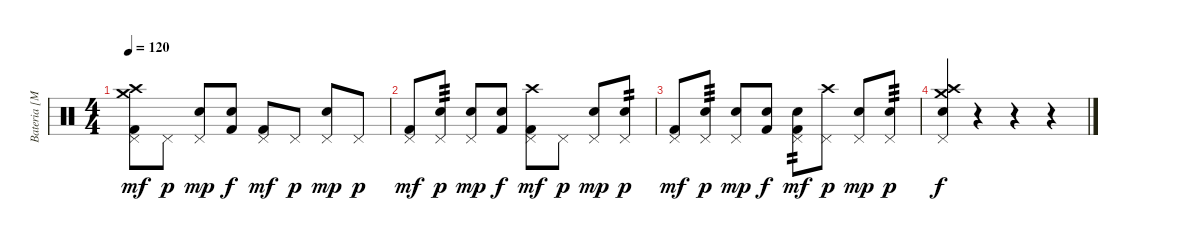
\track ("Bateria [Mauricio Basualto]" "Bateria [M") {instrument percussion}
\staff {score}
\articulation defaults
\ts (4 4)
\tempo 120
\clef neutral
\ks c
("Kick (hit) 2" "Pedal Hi-Hat (hit)" "Crash medium (hit)" "Crash high (hit)").8{dy mf} "Pedal Hi-Hat (hit)".8{dy p} ("Electric Snare (hit)" "Pedal Hi-Hat (hit)").8{dy mp} ("Electric Snare (hit)" "Kick (hit) 2").8{dy f} ("Kick (hit) 2" "Pedal Hi-Hat (hit)").8{dy mf} "Pedal Hi-Hat (hit)".8{dy p} ("Electric Snare (hit)" "Pedal Hi-Hat (hit)").8{dy mp} "Pedal Hi-Hat (hit)".8{dy p} |
("Kick (hit) 2" "Pedal Hi-Hat (hit)").8{dy mf} ("Pedal Hi-Hat (hit)" "Electric Snare (hit)").8{tp 3 dy p} ("Electric Snare (hit)" "Pedal Hi-Hat (hit)").8{dy mp} ("Electric Snare (hit)" "Kick (hit) 2").8{dy f} ("Kick (hit) 2" "Pedal Hi-Hat (hit)" "Crash high (hit)").8{dy mf} "Pedal Hi-Hat (hit)".8{dy p} ("Electric Snare (hit)" "Pedal Hi-Hat (hit)").8{dy mp} ("Pedal Hi-Hat (hit)" "Electric Snare (hit)").8{tp 2 dy p} |
("Kick (hit) 2" "Pedal Hi-Hat (hit)").8{dy mf} ("Pedal Hi-Hat (hit)" "Electric Snare (hit)").8{tp 3 dy p} ("Electric Snare (hit)" "Pedal Hi-Hat (hit)").8{dy mp} ("Electric Snare (hit)" "Kick (hit) 2").8{dy f} ("Kick (hit) 2" "Pedal Hi-Hat (hit)" "Electric Snare (hit)").8{tp 2 dy mf} ("Pedal Hi-Hat (hit)" "Crash high (hit)").8{dy p} ("Electric Snare (hit)" "Pedal Hi-Hat (hit)").8{dy mp} ("Pedal Hi-Hat (hit)" "Electric Snare (hit)").8{tp 3 dy p} |
("Crash medium (hit)" "Pedal Hi-Hat (hit)" "Electric Snare (hit)" "Crash high (hit)").4{dy f} r.4 r.4 r.4
